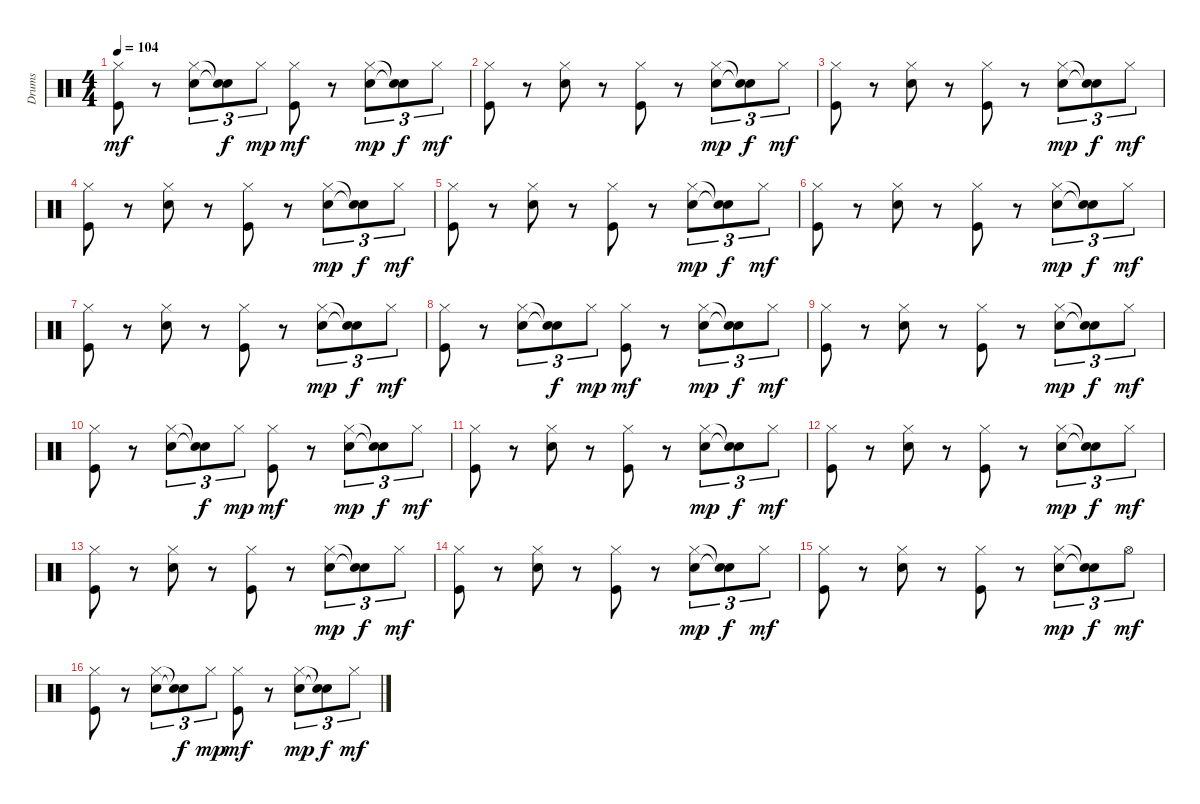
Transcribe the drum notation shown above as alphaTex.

\track ("Drums   " "Drums   ") {instrument percussion}
\staff {score}
\articulation defaults
\ts (4 4)
\tempo 104
\clef neutral
\ks c
("Kick (hit)" "Hi-Hat (closed)").8{dy mf} r.8 ("Snare (hit) 2" "Hi-Hat (closed)").8{tu (3 2)} ("Snare (hit)"{t} "Snare (hit)"{t}).8{tu (3 2) dy f} "Hi-Hat (closed)".8{tu (3 2) dy mp} ("Kick (hit)" "Hi-Hat (closed)").8{dy mf} r.8 ("Snare (hit) 2" "Hi-Hat (closed)").8{tu (3 2) dy mp} ("Snare (hit)"{t} "Snare (hit)"{t}).8{tu (3 2) dy f} "Hi-Hat (closed)".8{tu (3 2) dy mf} |
("Kick (hit)" "Hi-Hat (closed)").8 r.8 ("Snare (hit) 2" "Hi-Hat (closed)").8 r.8 ("Kick (hit)" "Hi-Hat (closed)").8 r.8 ("Snare (hit) 2" "Hi-Hat (closed)").8{tu (3 2) dy mp} ("Snare (hit)"{t} "Snare (hit)"{t}).8{tu (3 2) dy f} "Hi-Hat (closed)".8{tu (3 2) dy mf} |
("Kick (hit)" "Hi-Hat (closed)").8 r.8 ("Snare (hit) 2" "Hi-Hat (closed)").8 r.8 ("Kick (hit)" "Hi-Hat (closed)").8 r.8 ("Snare (hit) 2" "Hi-Hat (closed)").8{tu (3 2) dy mp} ("Snare (hit)"{t} "Snare (hit)"{t}).8{tu (3 2) dy f} "Hi-Hat (closed)".8{tu (3 2) dy mf} |
("Kick (hit)" "Hi-Hat (closed)").8 r.8 ("Snare (hit) 2" "Hi-Hat (closed)").8 r.8 ("Kick (hit)" "Hi-Hat (closed)").8 r.8 ("Snare (hit) 2" "Hi-Hat (closed)").8{tu (3 2) dy mp} ("Snare (hit)"{t} "Snare (hit)"{t}).8{tu (3 2) dy f} "Hi-Hat (closed)".8{tu (3 2) dy mf} |
("Kick (hit)" "Hi-Hat (closed)").8 r.8 ("Snare (hit) 2" "Hi-Hat (closed)").8 r.8 ("Kick (hit)" "Hi-Hat (closed)").8 r.8 ("Snare (hit) 2" "Hi-Hat (closed)").8{tu (3 2) dy mp} ("Snare (hit)"{t} "Snare (hit)"{t}).8{tu (3 2) dy f} "Hi-Hat (closed)".8{tu (3 2) dy mf} |
("Kick (hit)" "Hi-Hat (closed)").8 r.8 ("Snare (hit) 2" "Hi-Hat (closed)").8 r.8 ("Kick (hit)" "Hi-Hat (closed)").8 r.8 ("Snare (hit) 2" "Hi-Hat (closed)").8{tu (3 2) dy mp} ("Snare (hit)"{t} "Snare (hit)"{t}).8{tu (3 2) dy f} "Hi-Hat (closed)".8{tu (3 2) dy mf} |
("Kick (hit)" "Hi-Hat (closed)").8 r.8 ("Snare (hit) 2" "Hi-Hat (closed)").8 r.8 ("Kick (hit)" "Hi-Hat (closed)").8 r.8 ("Snare (hit) 2" "Hi-Hat (closed)").8{tu (3 2) dy mp} ("Snare (hit)"{t} "Snare (hit)"{t}).8{tu (3 2) dy f} "Hi-Hat (closed)".8{tu (3 2) dy mf} |
("Kick (hit)" "Hi-Hat (closed)").8 r.8 ("Snare (hit) 2" "Hi-Hat (closed)").8{tu (3 2)} ("Snare (hit)"{t} "Snare (hit)"{t}).8{tu (3 2) dy f} "Hi-Hat (closed)".8{tu (3 2) dy mp} ("Kick (hit)" "Hi-Hat (closed)").8{dy mf} r.8 ("Snare (hit) 2" "Hi-Hat (closed)").8{tu (3 2) dy mp} ("Snare (hit)"{t} "Snare (hit)"{t}).8{tu (3 2) dy f} "Hi-Hat (closed)".8{tu (3 2) dy mf} |
("Kick (hit)" "Hi-Hat (closed)").8 r.8 ("Snare (hit) 2" "Hi-Hat (closed)").8 r.8 ("Kick (hit)" "Hi-Hat (closed)").8 r.8 ("Snare (hit) 2" "Hi-Hat (closed)").8{tu (3 2) dy mp} ("Snare (hit)"{t} "Snare (hit)"{t}).8{tu (3 2) dy f} "Hi-Hat (closed)".8{tu (3 2) dy mf} |
("Kick (hit)" "Hi-Hat (closed)").8 r.8 ("Snare (hit) 2" "Hi-Hat (closed)").8{tu (3 2)} ("Snare (hit)"{t} "Snare (hit)"{t}).8{tu (3 2) dy f} "Hi-Hat (closed)".8{tu (3 2) dy mp} ("Kick (hit)" "Hi-Hat (closed)").8{dy mf} r.8 ("Snare (hit) 2" "Hi-Hat (closed)").8{tu (3 2) dy mp} ("Snare (hit)"{t} "Snare (hit)"{t}).8{tu (3 2) dy f} "Hi-Hat (closed)".8{tu (3 2) dy mf} |
("Kick (hit)" "Hi-Hat (closed)").8 r.8 ("Snare (hit) 2" "Hi-Hat (closed)").8 r.8 ("Kick (hit)" "Hi-Hat (closed)").8 r.8 ("Snare (hit) 2" "Hi-Hat (closed)").8{tu (3 2) dy mp} ("Snare (hit)"{t} "Snare (hit)"{t}).8{tu (3 2) dy f} "Hi-Hat (closed)".8{tu (3 2) dy mf} |
("Kick (hit)" "Hi-Hat (closed)").8 r.8 ("Snare (hit) 2" "Hi-Hat (closed)").8 r.8 ("Kick (hit)" "Hi-Hat (closed)").8 r.8 ("Snare (hit) 2" "Hi-Hat (closed)").8{tu (3 2) dy mp} ("Snare (hit)"{t} "Snare (hit)"{t}).8{tu (3 2) dy f} "Hi-Hat (closed)".8{tu (3 2) dy mf} |
("Kick (hit)" "Hi-Hat (closed)").8 r.8 ("Snare (hit) 2" "Hi-Hat (closed)").8 r.8 ("Kick (hit)" "Hi-Hat (closed)").8 r.8 ("Snare (hit) 2" "Hi-Hat (closed)").8{tu (3 2) dy mp} ("Snare (hit)"{t} "Snare (hit)"{t}).8{tu (3 2) dy f} "Hi-Hat (closed)".8{tu (3 2) dy mf} |
("Kick (hit)" "Hi-Hat (closed)").8 r.8 ("Snare (hit) 2" "Hi-Hat (closed)").8 r.8 ("Kick (hit)" "Hi-Hat (closed)").8 r.8 ("Snare (hit) 2" "Hi-Hat (closed)").8{tu (3 2) dy mp} ("Snare (hit)"{t} "Snare (hit)"{t}).8{tu (3 2) dy f} "Hi-Hat (closed)".8{tu (3 2) dy mf} |
("Kick (hit)" "Hi-Hat (closed)").8 r.8 ("Snare (hit) 2" "Hi-Hat (closed)").8 r.8 ("Kick (hit)" "Hi-Hat (closed)").8 r.8 ("Snare (hit) 2" "Hi-Hat (closed)").8{tu (3 2) dy mp} ("Snare (hit)"{t} "Snare (hit)"{t}).8{tu (3 2) dy f} "Hi-Hat (open)".8{tu (3 2) dy mf} |
("Kick (hit)" "Hi-Hat (closed)").8 r.8 ("Snare (hit) 2" "Hi-Hat (closed)").8{tu (3 2)} ("Snare (hit)"{t} "Snare (hit)"{t}).8{tu (3 2) dy f} "Hi-Hat (closed)".8{tu (3 2) dy mp} ("Kick (hit)" "Hi-Hat (closed)").8{dy mf} r.8 ("Snare (hit) 2" "Hi-Hat (closed)").8{tu (3 2) dy mp} ("Snare (hit)"{t} "Snare (hit)"{t}).8{tu (3 2) dy f} "Hi-Hat (closed)".8{tu (3 2) dy mf}
